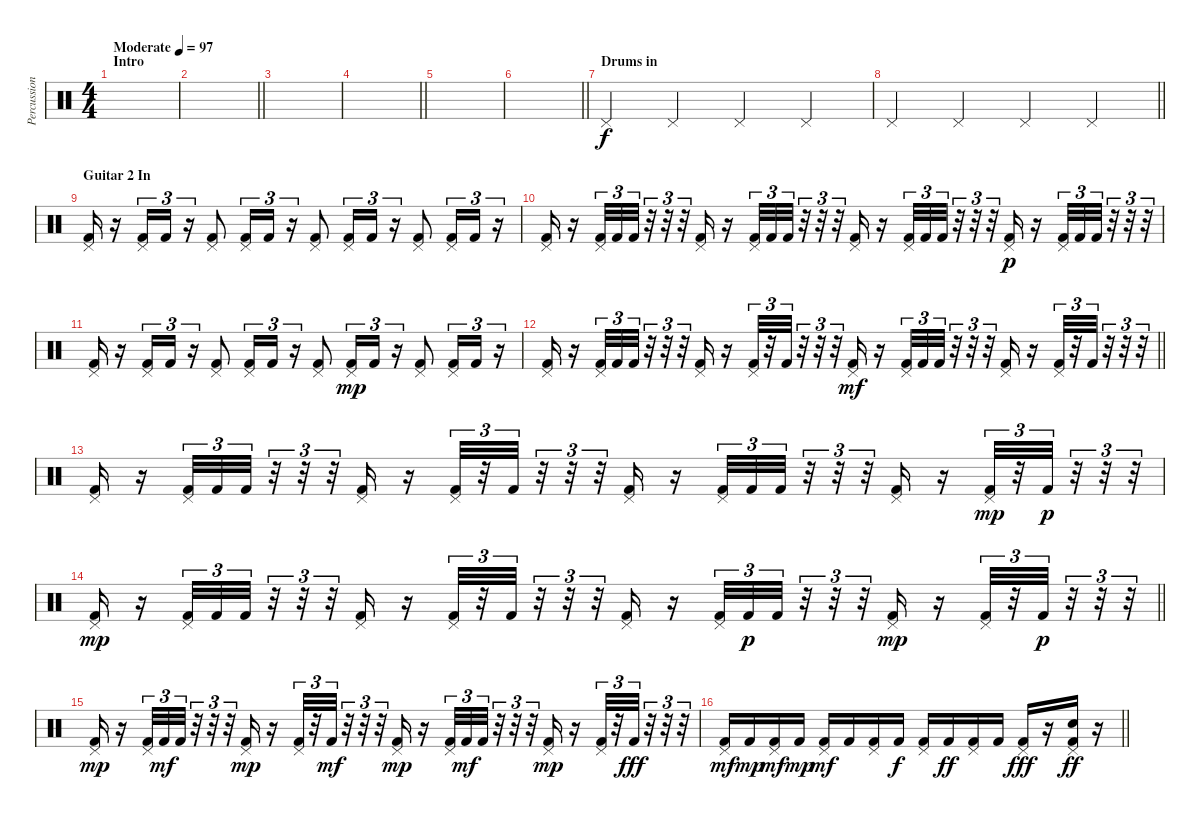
\track ("Percussion" "Percussion") {instrument percussion}
\staff {score}
\articulation defaults
\ts (4 4)
\section ("" "Intro")
\tempo (97 "Moderate")
\clef neutral
\ks c
|
\barLineRight lightlight
|
|
\barLineRight lightlight
|
|
\barLineRight lightlight
|
\section ("" "Drums in")
"Pedal Hi-Hat (hit)".4{volume 5} "Pedal Hi-Hat (hit)".4 "Pedal Hi-Hat (hit)".4 "Pedal Hi-Hat (hit)".4 |
\barLineRight lightlight "Pedal Hi-Hat (hit)".4 "Pedal Hi-Hat (hit)".4 "Pedal Hi-Hat (hit)".4 "Pedal Hi-Hat (hit)".4
|
\section ("" "Guitar 2 In")
("Kick (hit) 2" "Pedal Hi-Hat (hit)").16 r.16 ("Kick (hit) 2" "Pedal Hi-Hat (hit)").16{tu (3 2)} "Kick (hit) 2".16{tu (3 2)} r.16{tu (3 2)} ("Kick (hit) 2" "Pedal Hi-Hat (hit)").8 ("Kick (hit) 2" "Pedal Hi-Hat (hit)").16{tu (3 2)} "Kick (hit) 2".16{tu (3 2)} r.16{tu (3 2)} ("Kick (hit) 2" "Pedal Hi-Hat (hit)").8 ("Kick (hit) 2" "Pedal Hi-Hat (hit)").16{tu (3 2)} "Kick (hit) 2".16{tu (3 2)} r.16{tu (3 2)} ("Kick (hit) 2" "Pedal Hi-Hat (hit)").8 ("Kick (hit) 2" "Pedal Hi-Hat (hit)").16{tu (3 2)} "Kick (hit) 2".16{tu (3 2)} r.16{tu (3 2)} |
("Kick (hit) 2" "Pedal Hi-Hat (hit)").16 r.16 ("Kick (hit) 2" "Pedal Hi-Hat (hit)").32{tu (3 2)} "Kick (hit) 2".32{tu (3 2)} "Kick (hit) 2".32{tu (3 2)} r.32{tu (3 2)} r.32{tu (3 2)} r.32{tu (3 2)} ("Kick (hit) 2" "Pedal Hi-Hat (hit)").16 r.16 ("Kick (hit) 2" "Pedal Hi-Hat (hit)").32{tu (3 2)} "Kick (hit) 2".32{tu (3 2)} "Kick (hit) 2".32{tu (3 2)} r.32{tu (3 2)} r.32{tu (3 2)} r.32{tu (3 2)} ("Kick (hit) 2" "Pedal Hi-Hat (hit)").16 r.16 ("Kick (hit) 2" "Pedal Hi-Hat (hit)").32{tu (3 2)} "Kick (hit) 2".32{tu (3 2)} "Kick (hit) 2".32{tu (3 2)} r.32{tu (3 2)} r.32{tu (3 2)} r.32{tu (3 2)} ("Kick (hit) 2" "Pedal Hi-Hat (hit)").16{dy p} r.16 ("Kick (hit) 2" "Pedal Hi-Hat (hit)").32{tu (3 2)} "Kick (hit) 2".32{tu (3 2)} "Kick (hit) 2".32{tu (3 2)} r.32{tu (3 2)} r.32{tu (3 2)} r.32{tu (3 2)} |
("Kick (hit) 2" "Pedal Hi-Hat (hit)").16 r.16 ("Kick (hit) 2" "Pedal Hi-Hat (hit)").16{tu (3 2)} "Kick (hit) 2".16{tu (3 2)} r.16{tu (3 2)} ("Kick (hit) 2" "Pedal Hi-Hat (hit)").8 ("Kick (hit) 2" "Pedal Hi-Hat (hit)").16{tu (3 2)} "Kick (hit) 2".16{tu (3 2)} r.16{tu (3 2)} ("Kick (hit) 2" "Pedal Hi-Hat (hit)").8 ("Kick (hit) 2" "Pedal Hi-Hat (hit)").16{tu (3 2) dy mp} "Kick (hit) 2".16{tu (3 2)} r.16{tu (3 2)} ("Kick (hit) 2" "Pedal Hi-Hat (hit)").8 ("Kick (hit) 2" "Pedal Hi-Hat (hit)").16{tu (3 2)} "Kick (hit) 2".16{tu (3 2)} r.16{tu (3 2)} |
\barLineRight lightlight
("Kick (hit) 2" "Pedal Hi-Hat (hit)").16 r.16 ("Kick (hit) 2" "Pedal Hi-Hat (hit)").32{tu (3 2)} "Kick (hit) 2".32{tu (3 2)} "Kick (hit) 2".32{tu (3 2)} r.32{tu (3 2)} r.32{tu (3 2)} r.32{tu (3 2)} ("Kick (hit) 2" "Pedal Hi-Hat (hit)").16 r.16 ("Kick (hit) 2" "Pedal Hi-Hat (hit)").32{tu (3 2)} r.32{tu (3 2)} "Kick (hit) 2".32{tu (3 2)} r.32{tu (3 2)} r.32{tu (3 2)} r.32{tu (3 2)} ("Kick (hit) 2" "Pedal Hi-Hat (hit)").16{dy mf} r.16 ("Kick (hit) 2" "Pedal Hi-Hat (hit)").32{tu (3 2)} "Kick (hit) 2".32{tu (3 2)} "Kick (hit) 2".32{tu (3 2)} r.32{tu (3 2)} r.32{tu (3 2)} r.32{tu (3 2)} ("Kick (hit) 2" "Pedal Hi-Hat (hit)").16 r.16 ("Kick (hit) 2" "Pedal Hi-Hat (hit)").32{tu (3 2)} r.32{tu (3 2)} "Kick (hit) 2".32{tu (3 2)} r.32{tu (3 2)} r.32{tu (3 2)} r.32{tu (3 2)} |
("Kick (hit) 2" "Pedal Hi-Hat (hit)").16 r.16 ("Kick (hit) 2" "Pedal Hi-Hat (hit)").32{tu (3 2)} "Kick (hit) 2".32{tu (3 2)} "Kick (hit) 2".32{tu (3 2)} r.32{tu (3 2)} r.32{tu (3 2)} r.32{tu (3 2)} ("Kick (hit) 2" "Pedal Hi-Hat (hit)").16 r.16 ("Kick (hit) 2" "Pedal Hi-Hat (hit)").32{tu (3 2)} r.32{tu (3 2)} "Kick (hit) 2".32{tu (3 2)} r.32{tu (3 2)} r.32{tu (3 2)} r.32{tu (3 2)} ("Kick (hit) 2" "Pedal Hi-Hat (hit)").16 r.16 ("Kick (hit) 2" "Pedal Hi-Hat (hit)").32{tu (3 2)} "Kick (hit) 2".32{tu (3 2)} "Kick (hit) 2".32{tu (3 2)} r.32{tu (3 2)} r.32{tu (3 2)} r.32{tu (3 2)} ("Kick (hit) 2" "Pedal Hi-Hat (hit)").16 r.16 ("Kick (hit) 2" "Pedal Hi-Hat (hit)").32{tu (3 2) dy mp} r.32{tu (3 2)} "Kick (hit) 2".32{tu (3 2) dy p} r.32{tu (3 2)} r.32{tu (3 2)} r.32{tu (3 2)} |
\barLineRight lightlight
("Kick (hit) 2" "Pedal Hi-Hat (hit)").16{dy mp} r.16 ("Kick (hit) 2" "Pedal Hi-Hat (hit)").32{tu (3 2)} "Kick (hit) 2".32{tu (3 2)} "Kick (hit) 2".32{tu (3 2)} r.32{tu (3 2)} r.32{tu (3 2)} r.32{tu (3 2)} ("Kick (hit) 2" "Pedal Hi-Hat (hit)").16 r.16 ("Kick (hit) 2" "Pedal Hi-Hat (hit)").32{tu (3 2)} r.32{tu (3 2)} "Kick (hit) 2".32{tu (3 2)} r.32{tu (3 2)} r.32{tu (3 2)} r.32{tu (3 2)} ("Kick (hit) 2" "Pedal Hi-Hat (hit)").16 r.16 ("Kick (hit) 2" "Pedal Hi-Hat (hit)").32{tu (3 2)} "Kick (hit) 2".32{tu (3 2) dy p} "Kick (hit) 2".32{tu (3 2)} r.32{tu (3 2)} r.32{tu (3 2)} r.32{tu (3 2)} ("Kick (hit) 2" "Pedal Hi-Hat (hit)").16{dy mp} r.16 ("Kick (hit) 2" "Pedal Hi-Hat (hit)").32{tu (3 2)} r.32{tu (3 2)} "Kick (hit) 2".32{tu (3 2) dy p} r.32{tu (3 2)} r.32{tu (3 2)} r.32{tu (3 2)} |
("Kick (hit) 2" "Pedal Hi-Hat (hit)").16{dy mp} r.16 ("Kick (hit) 2" "Pedal Hi-Hat (hit)").32{tu (3 2)} "Kick (hit) 2".32{tu (3 2) dy mf} "Kick (hit) 2".32{tu (3 2)} r.32{tu (3 2)} r.32{tu (3 2)} r.32{tu (3 2)} ("Kick (hit) 2" "Pedal Hi-Hat (hit)").16{dy mp} r.16 ("Kick (hit) 2" "Pedal Hi-Hat (hit)").32{tu (3 2)} r.32{tu (3 2)} "Kick (hit) 2".32{tu (3 2) dy mf} r.32{tu (3 2)} r.32{tu (3 2)} r.32{tu (3 2)} ("Kick (hit) 2" "Pedal Hi-Hat (hit)").16{dy mp} r.16 ("Kick (hit) 2" "Pedal Hi-Hat (hit)").32{tu (3 2)} "Kick (hit) 2".32{tu (3 2) dy mf} "Kick (hit) 2".32{tu (3 2)} r.32{tu (3 2)} r.32{tu (3 2)} r.32{tu (3 2)} ("Kick (hit) 2" "Pedal Hi-Hat (hit)").16{dy mp} r.16 ("Kick (hit) 2" "Pedal Hi-Hat (hit)").32{tu (3 2) volume 7} r.32{tu (3 2)} "Kick (hit) 2".32{tu (3 2) dy fff} r.32{tu (3 2)} r.32{tu (3 2)} r.32{tu (3 2)} |
\barLineRight lightlight
("Kick (hit) 2" "Pedal Hi-Hat (hit)").16{dy mf} "Kick (hit) 2".16{dy mp} ("Kick (hit) 2" "Pedal Hi-Hat (hit)").16{dy mf} "Kick (hit) 2".16{dy mp} ("Kick (hit) 2" "Pedal Hi-Hat (hit)").16{dy mf} "Kick (hit) 2".16 ("Kick (hit) 2" "Pedal Hi-Hat (hit)").16 "Kick (hit) 2".16{dy f} ("Kick (hit) 2" "Pedal Hi-Hat (hit)").16 "Kick (hit) 2".16{dy ff} ("Kick (hit) 2" "Pedal Hi-Hat (hit)").16 "Kick (hit) 2".16 ("Kick (hit) 2" "Pedal Hi-Hat (hit)").16{dy fff} r.16 ("Electric Snare (hit)" "Kick (hit) 2" "Pedal Hi-Hat (hit)").16{dy ff} r.16
